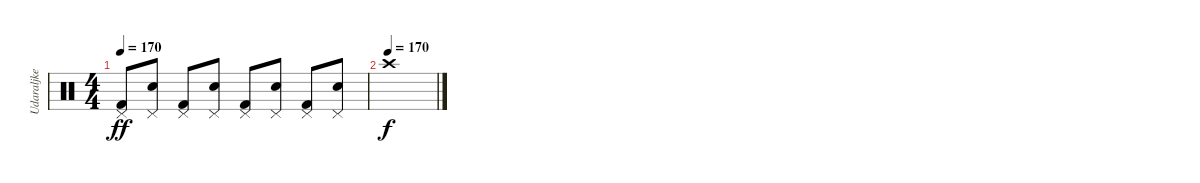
\track ("Udaraljke" "Udaraljke") {instrument percussion}
\staff {score}
\articulation defaults
\ts (4 4)
\tempo 170
\clef neutral
\ks c
("Kick (hit) 2" "Pedal Hi-Hat (hit)").8{dy ff} ("Snare (hit) 2" "Pedal Hi-Hat (hit)").8 ("Kick (hit) 2" "Pedal Hi-Hat (hit)").8 ("Snare (hit) 2" "Pedal Hi-Hat (hit)").8 ("Kick (hit) 2" "Pedal Hi-Hat (hit)").8 ("Snare (hit) 2" "Pedal Hi-Hat (hit)").8 ("Kick (hit) 2" "Pedal Hi-Hat (hit)").8 ("Snare (hit) 2" "Pedal Hi-Hat (hit)").8 |
\tempo (170)
"Crash high (hit)".1{dy f}
